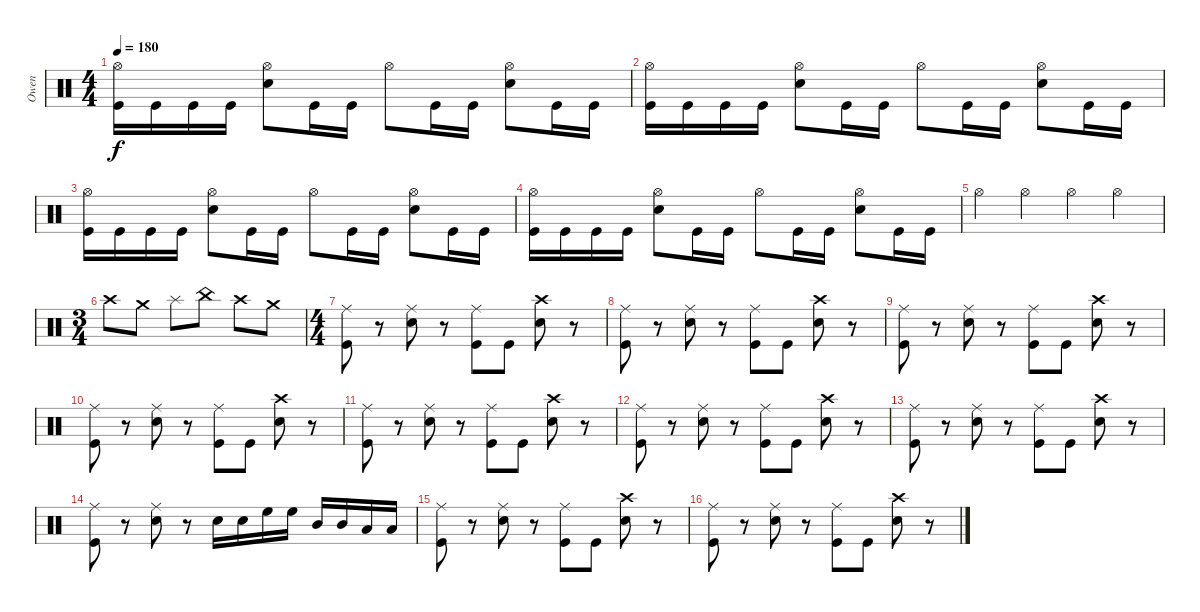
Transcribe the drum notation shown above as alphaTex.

\track ("Owen" "Owen") {instrument percussion}
\staff {score}
\articulation defaults
\ts (4 4)
\tempo 180
\clef neutral
\ks c
("Hi-Hat (open)" "Kick (hit)").16{dy f} "Kick (hit)".16 "Kick (hit)".16 "Kick (hit)".16 ("Hi-Hat (open)" "Snare (hit) 2").8 "Kick (hit)".16 "Kick (hit)".16 "Hi-Hat (open)".8 "Kick (hit)".16 "Kick (hit)".16 ("Hi-Hat (open)" "Snare (hit) 2").8 "Kick (hit)".16 "Kick (hit)".16 |
("Hi-Hat (open)" "Kick (hit)").16 "Kick (hit)".16 "Kick (hit)".16 "Kick (hit)".16 ("Hi-Hat (open)" "Snare (hit) 2").8 "Kick (hit)".16 "Kick (hit)".16 "Hi-Hat (open)".8 "Kick (hit)".16 "Kick (hit)".16 ("Hi-Hat (open)" "Snare (hit) 2").8 "Kick (hit)".16 "Kick (hit)".16 |
("Hi-Hat (open)" "Kick (hit)").16 "Kick (hit)".16 "Kick (hit)".16 "Kick (hit)".16 ("Hi-Hat (open)" "Snare (hit) 2").8 "Kick (hit)".16 "Kick (hit)".16 "Hi-Hat (open)".8 "Kick (hit)".16 "Kick (hit)".16 ("Hi-Hat (open)" "Snare (hit) 2").8 "Kick (hit)".16 "Kick (hit)".16 |
("Hi-Hat (open)" "Kick (hit)").16 "Kick (hit)".16 "Kick (hit)".16 "Kick (hit)".16 ("Hi-Hat (open)" "Snare (hit) 2").8 "Kick (hit)".16 "Kick (hit)".16 "Hi-Hat (open)".8 "Kick (hit)".16 "Kick (hit)".16 ("Hi-Hat (open)" "Snare (hit) 2").8 "Kick (hit)".16 "Kick (hit)".16 |
"Hi-Hat (open)".4 "Hi-Hat (open)".4 "Hi-Hat (open)".4 "Hi-Hat (open)".4 |
\ts (3 4)
"Crash high (hit)".8 "Crash medium (hit)".8 "Splash (hit)".8 "China (hit)".8 "Crash high (hit)".8 "Crash medium (hit)".8 |
\ts (4 4)
("Ride (middle)" "Kick (hit)").8 r.8 ("Ride (middle)" "Snare (hit) 2").8 r.8 ("Ride (middle)" "Kick (hit)").8 "Kick (hit)".8 ("Crash high (hit)" "Snare (hit) 2").8 r.8 |
("Ride (middle)" "Kick (hit)").8 r.8 ("Ride (middle)" "Snare (hit) 2").8 r.8 ("Ride (middle)" "Kick (hit)").8 "Kick (hit)".8 ("Crash high (hit)" "Snare (hit) 2").8 r.8 |
("Ride (middle)" "Kick (hit)").8 r.8 ("Ride (middle)" "Snare (hit) 2").8 r.8 ("Ride (middle)" "Kick (hit)").8 "Kick (hit)".8 ("Crash high (hit)" "Snare (hit) 2").8 r.8 |
("Ride (middle)" "Kick (hit)").8 r.8 ("Ride (middle)" "Snare (hit) 2").8 r.8 ("Ride (middle)" "Kick (hit)").8 "Kick (hit)".8 ("Crash high (hit)" "Snare (hit) 2").8 r.8 |
("Ride (middle)" "Kick (hit)").8 r.8 ("Ride (middle)" "Snare (hit) 2").8 r.8 ("Ride (middle)" "Kick (hit)").8 "Kick (hit)".8 ("Crash high (hit)" "Snare (hit) 2").8 r.8 |
("Ride (middle)" "Kick (hit)").8 r.8 ("Ride (middle)" "Snare (hit) 2").8 r.8 ("Ride (middle)" "Kick (hit)").8 "Kick (hit)".8 ("Crash high (hit)" "Snare (hit) 2").8 r.8 |
("Ride (middle)" "Kick (hit)").8 r.8 ("Ride (middle)" "Snare (hit) 2").8 r.8 ("Ride (middle)" "Kick (hit)").8 "Kick (hit)".8 ("Crash high (hit)" "Snare (hit) 2").8 r.8 |
("Ride (middle)" "Kick (hit)").8 r.8 ("Ride (middle)" "Snare (hit) 2").8 r.8 "Snare (hit) 2".16 "Snare (hit) 2".16 "High Floor Tom (hit)".16 "High Floor Tom (hit)".16 "Mid Tom (hit)".16 "Mid Tom (hit)".16 "Low Tom (hit)".16 "Low Tom (hit)".16 |
("Ride (middle)" "Kick (hit)").8 r.8 ("Ride (middle)" "Snare (hit) 2").8 r.8 ("Ride (middle)" "Kick (hit)").8 "Kick (hit)".8 ("Crash high (hit)" "Snare (hit) 2").8 r.8 |
("Ride (middle)" "Kick (hit)").8 r.8 ("Ride (middle)" "Snare (hit) 2").8 r.8 ("Ride (middle)" "Kick (hit)").8 "Kick (hit)".8 ("Crash high (hit)" "Snare (hit) 2").8 r.8
